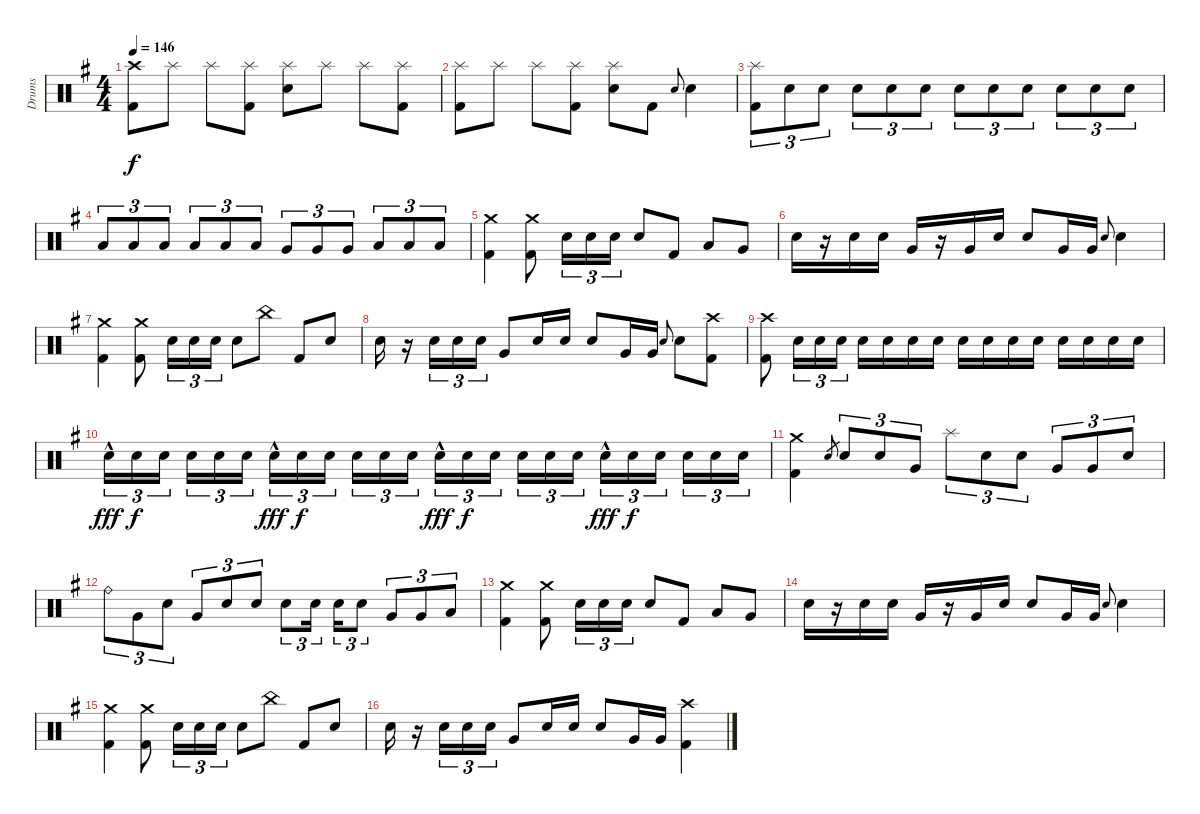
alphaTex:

\track ("Drums" "Drums") {instrument percussion}
\staff {score}
\articulation defaults
\ts (4 4)
\tempo 146
\clef neutral
\ks eminor
("Crash high (hit)" "Kick (hit) 2").8{dy f} "Splash (hit)".8 "Splash (hit)".8 ("Splash (hit)" "Kick (hit) 2").8 ("Splash (hit)" "Snare (hit) 2").8 "Splash (hit)".8 "Splash (hit)".8 ("Splash (hit)" "Kick (hit) 2").8 |
("Splash (hit)" "Kick (hit) 2").8 "Splash (hit)".8 "Splash (hit)".8 ("Splash (hit)" "Kick (hit) 2").8 ("Splash (hit)" "Snare (hit) 2").8 "Kick (hit) 2".8 "Snare (hit) 2".8{gr onbeat} "Snare (hit) 2".4 |
("Splash (hit)" "Kick (hit) 2").8{tu (3 2)} "Electric Snare (hit)".8{tu (3 2)} "Electric Snare (hit)".8{tu (3 2)} "Electric Snare (hit)".8{tu (3 2)} "Electric Snare (hit)".8{tu (3 2)} "Electric Snare (hit)".8{tu (3 2)} "Electric Snare (hit)".8{tu (3 2)} "Electric Snare (hit)".8{tu (3 2)} "Electric Snare (hit)".8{tu (3 2)} "Electric Snare (hit)".8{tu (3 2)} "Electric Snare (hit)".8{tu (3 2)} "Electric Snare (hit)".8{tu (3 2)} |
"Low Tom (hit)".8{tu (3 2)} "Low Tom (hit)".8{tu (3 2)} "Low Tom (hit)".8{tu (3 2)} "Low Tom (hit)".8{tu (3 2)} "Low Tom (hit)".8{tu (3 2)} "Low Tom (hit)".8{tu (3 2)} "Very Low Tom (hit)".8{tu (3 2)} "Very Low Tom (hit)".8{tu (3 2)} "Very Low Tom (hit)".8{tu (3 2)} "Low Floor Tom (hit)".8{tu (3 2)} "Low Floor Tom (hit)".8{tu (3 2)} "Low Floor Tom (hit)".8{tu (3 2)} |
("Crash medium (hit)" "Kick (hit) 2").4 ("Crash medium (hit)" "Kick (hit) 2").8 "Electric Snare (hit)".16{tu (3 2)} "Electric Snare (hit)".16{tu (3 2)} "Electric Snare (hit)".16{tu (3 2)} "Electric Snare (hit)".8 "Kick (hit) 2".8 "Low Tom (hit)".8 "Very Low Tom (hit)".8 |
"Electric Snare (hit)".16 r.16 "Electric Snare (hit)".16 "Electric Snare (hit)".16 "Very Low Tom (hit)".16 r.16 "Very Low Tom (hit)".16 "Electric Snare (hit)".16 "Electric Snare (hit)".8 "Very Low Tom (hit)".16 "Very Low Tom (hit)".16 "Electric Snare (hit)".8{gr onbeat} "Electric Snare (hit)".4 |
("Crash medium (hit)" "Kick (hit) 2").4 ("Crash medium (hit)" "Kick (hit) 2").8 "Electric Snare (hit)".16{tu (3 2)} "Electric Snare (hit)".16{tu (3 2)} "Electric Snare (hit)".16{tu (3 2)} "Electric Snare (hit)".8 "China (hit)".8 "Kick (hit) 2".8 "Electric Snare (hit)".8 |
"Electric Snare (hit)".16 r.16 "Electric Snare (hit)".16{tu (3 2)} "Electric Snare (hit)".16{tu (3 2)} "Electric Snare (hit)".16{tu (3 2)} "Very Low Tom (hit)".8 "Electric Snare (hit)".16 "Electric Snare (hit)".16 "Electric Snare (hit)".8 "Very Low Tom (hit)".16 "Very Low Tom (hit)".16 "Electric Snare (hit)".8{gr onbeat} "Electric Snare (hit)".8 ("Crash high (hit)" "Kick (hit) 2").8 |
("Crash high (hit)" "Kick (hit) 2").8 "Electric Snare (hit)".16{tu (3 2)} "Electric Snare (hit)".16{tu (3 2)} "Electric Snare (hit)".16{tu (3 2)} "Electric Snare (hit)".16 "Electric Snare (hit)".16 "Electric Snare (hit)".16 "Electric Snare (hit)".16 "Electric Snare (hit)".16 "Electric Snare (hit)".16 "Electric Snare (hit)".16 "Electric Snare (hit)".16 "Electric Snare (hit)".16 "Electric Snare (hit)".16 "Electric Snare (hit)".16 "Electric Snare (hit)".16 |
"Electric Snare (hit)"{hac}.16{tu (3 2) dy fff} "Electric Snare (hit)".16{tu (3 2) dy f} "Electric Snare (hit)".16{tu (3 2) beam splitsecondary} "Electric Snare (hit)".16{tu (3 2)} "Electric Snare (hit)".16{tu (3 2)} "Electric Snare (hit)".16{tu (3 2)} "Electric Snare (hit)"{hac}.16{tu (3 2) dy fff} "Electric Snare (hit)".16{tu (3 2) dy f} "Electric Snare (hit)".16{tu (3 2) beam splitsecondary} "Electric Snare (hit)".16{tu (3 2)} "Electric Snare (hit)".16{tu (3 2)} "Electric Snare (hit)".16{tu (3 2)} "Electric Snare (hit)"{hac}.16{tu (3 2) dy fff} "Electric Snare (hit)".16{tu (3 2) dy f} "Electric Snare (hit)".16{tu (3 2) beam splitsecondary} "Electric Snare (hit)".16{tu (3 2)} "Electric Snare (hit)".16{tu (3 2)} "Electric Snare (hit)".16{tu (3 2)} "Electric Snare (hit)"{hac}.16{tu (3 2) dy fff} "Electric Snare (hit)".16{tu (3 2) dy f} "Electric Snare (hit)".16{tu (3 2) beam splitsecondary} "Electric Snare (hit)".16{tu (3 2)} "Electric Snare (hit)".16{tu (3 2)} "Electric Snare (hit)".16{tu (3 2)} |
("Crash medium (hit)" "Kick (hit) 2").4 "Electric Snare (hit)".8{gr} "Electric Snare (hit)".8{tu (3 2)} "Electric Snare (hit)".8{tu (3 2)} "Very Low Tom (hit)".8{tu (3 2)} "Splash (hit)".8{tu (3 2)} "Electric Snare (hit)".8{tu (3 2)} "Electric Snare (hit)".8{tu (3 2)} "Very Low Tom (hit)".8{tu (3 2)} "Very Low Tom (hit)".8{tu (3 2)} "Electric Snare (hit)".8{tu (3 2)} |
"Ride (bell)".8{tu (3 2)} "Very Low Tom (hit)".8{tu (3 2)} "Electric Snare (hit)".8{tu (3 2)} "Very Low Tom (hit)".8{tu (3 2)} "Electric Snare (hit)".8{tu (3 2)} "Electric Snare (hit)".8{tu (3 2)} "Electric Snare (hit)".8{tu (3 2)} "Electric Snare (hit)".16{tu (3 2) beam splitsecondary} "Electric Snare (hit)".16{tu (3 2)} "Electric Snare (hit)".8{tu (3 2)} "Very Low Tom (hit)".8{tu (3 2)} "Very Low Tom (hit)".8{tu (3 2)} "Low Floor Tom (hit)".8{tu (3 2)} |
("Crash medium (hit)" "Kick (hit) 2").4 ("Crash medium (hit)" "Kick (hit) 2").8 "Electric Snare (hit)".16{tu (3 2)} "Electric Snare (hit)".16{tu (3 2)} "Electric Snare (hit)".16{tu (3 2)} "Electric Snare (hit)".8 "Kick (hit) 2".8 "Low Tom (hit)".8 "Very Low Tom (hit)".8 |
"Electric Snare (hit)".16 r.16 "Electric Snare (hit)".16 "Electric Snare (hit)".16 "Very Low Tom (hit)".16 r.16 "Very Low Tom (hit)".16 "Electric Snare (hit)".16 "Electric Snare (hit)".8 "Very Low Tom (hit)".16 "Very Low Tom (hit)".16 "Electric Snare (hit)".8{gr onbeat} "Electric Snare (hit)".4 |
("Crash medium (hit)" "Kick (hit) 2").4 ("Crash medium (hit)" "Kick (hit) 2").8 "Electric Snare (hit)".16{tu (3 2)} "Electric Snare (hit)".16{tu (3 2)} "Electric Snare (hit)".16{tu (3 2)} "Electric Snare (hit)".8 "China (hit)".8 "Kick (hit) 2".8 "Electric Snare (hit)".8 |
"Electric Snare (hit)".16 r.16 "Electric Snare (hit)".16{tu (3 2)} "Electric Snare (hit)".16{tu (3 2)} "Electric Snare (hit)".16{tu (3 2)} "Very Low Tom (hit)".8 "Electric Snare (hit)".16 "Electric Snare (hit)".16 "Electric Snare (hit)".8 "Very Low Tom (hit)".16 "Very Low Tom (hit)".16 ("Crash high (hit)" "Kick (hit) 2").4
